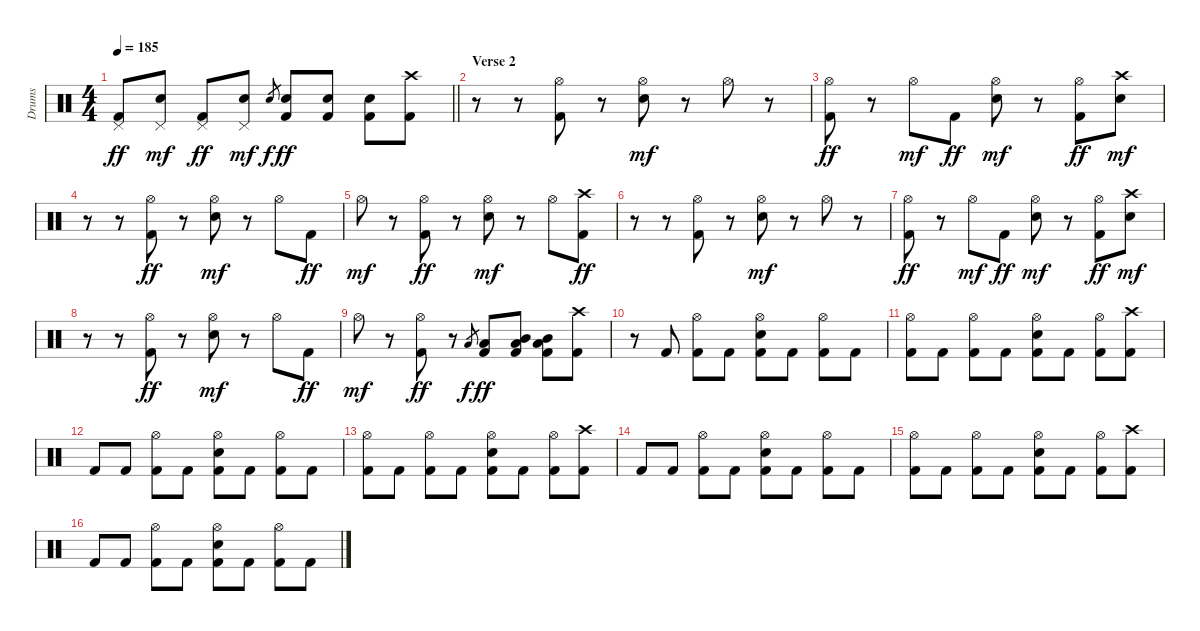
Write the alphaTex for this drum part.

\track ("Drums" "Drums") {instrument percussion}
\staff {score}
\articulation defaults
\ts (4 4)
\tempo 185
\clef neutral
\barLineRight lightlight
\ks c
("Pedal Hi-Hat (hit)" "Kick (hit) 2").8{dy ff} ("Pedal Hi-Hat (hit)" "Electric Snare (hit)").8{dy mf} ("Pedal Hi-Hat (hit)" "Kick (hit) 2").8{dy ff} ("Pedal Hi-Hat (hit)" "Electric Snare (hit)").8{dy mf} "Electric Snare (hit)".8{gr dy f} ("Electric Snare (hit)" "Kick (hit) 2").8{dy ff} ("Electric Snare (hit)" "Kick (hit) 2").8 ("Electric Snare (hit)" "Kick (hit) 2").8 ("Crash high (hit)" "Kick (hit) 2").8 |
\section ("" "Verse 2")
r.8 r.8 ("Hi-Hat (open)" "Kick (hit) 2").8 r.8 ("Hi-Hat (open)" "Electric Snare (hit)").8{dy mf} r.8 "Hi-Hat (open)".8 r.8 |
("Hi-Hat (open)" "Kick (hit) 2").8{dy ff} r.8 "Hi-Hat (open)".8{dy mf} "Kick (hit) 2".8{dy ff} ("Hi-Hat (open)" "Electric Snare (hit)").8{dy mf} r.8 ("Hi-Hat (open)" "Kick (hit) 2").8{dy ff} ("Crash high (hit)" "Electric Snare (hit)").8{dy mf} |
r.8 r.8 ("Hi-Hat (open)" "Kick (hit) 2").8{dy ff} r.8 ("Hi-Hat (open)" "Electric Snare (hit)").8{dy mf} r.8 "Hi-Hat (open)".8 "Kick (hit) 2".8{dy ff} |
"Hi-Hat (open)".8{dy mf} r.8 ("Hi-Hat (open)" "Kick (hit) 2").8{dy ff} r.8 ("Hi-Hat (open)" "Electric Snare (hit)").8{dy mf} r.8 "Hi-Hat (open)".8 ("Crash high (hit)" "Kick (hit) 2").8{dy ff} |
r.8 r.8 ("Hi-Hat (open)" "Kick (hit) 2").8 r.8 ("Hi-Hat (open)" "Electric Snare (hit)").8{dy mf} r.8 "Hi-Hat (open)".8 r.8 |
("Hi-Hat (open)" "Kick (hit) 2").8{dy ff} r.8 "Hi-Hat (open)".8{dy mf} "Kick (hit) 2".8{dy ff} ("Hi-Hat (open)" "Electric Snare (hit)").8{dy mf} r.8 ("Hi-Hat (open)" "Kick (hit) 2").8{dy ff} ("Crash high (hit)" "Electric Snare (hit)").8{dy mf} |
r.8 r.8 ("Hi-Hat (open)" "Kick (hit) 2").8{dy ff} r.8 ("Hi-Hat (open)" "Electric Snare (hit)").8{dy mf} r.8 "Hi-Hat (open)".8 "Kick (hit) 2".8{dy ff} |
"Hi-Hat (open)".8{dy mf} r.8 ("Hi-Hat (open)" "Kick (hit) 2").8{dy ff} r.8 "Low Tom (hit)".8{gr dy f} ("Low Tom (hit)" "Kick (hit) 2").8{dy ff} ("Mid Tom (hit)" "Low Tom (hit)" "Kick (hit) 2").8 ("Mid Tom (hit)" "Low Tom (hit)" "Kick (hit) 2").8 ("Crash high (hit)" "Kick (hit) 2").8 |
r.8 "Kick (hit) 2".8 ("Hi-Hat (open)" "Kick (hit) 2").8 "Kick (hit) 2".8 ("Hi-Hat (open)" "Electric Snare (hit)" "Kick (hit) 2").8 "Kick (hit) 2".8 ("Hi-Hat (open)" "Kick (hit) 2").8 "Kick (hit) 2".8 |
("Hi-Hat (open)" "Kick (hit) 2").8 "Kick (hit) 2".8 ("Hi-Hat (open)" "Kick (hit) 2").8 "Kick (hit) 2".8 ("Hi-Hat (open)" "Electric Snare (hit)" "Kick (hit) 2").8 "Kick (hit) 2".8 ("Hi-Hat (open)" "Kick (hit) 2").8 ("Crash high (hit)" "Kick (hit) 2").8 |
"Kick (hit) 2".8 "Kick (hit) 2".8 ("Hi-Hat (open)" "Kick (hit) 2").8 "Kick (hit) 2".8 ("Hi-Hat (open)" "Electric Snare (hit)" "Kick (hit) 2").8 "Kick (hit) 2".8 ("Hi-Hat (open)" "Kick (hit) 2").8 "Kick (hit) 2".8 |
("Hi-Hat (open)" "Kick (hit) 2").8 "Kick (hit) 2".8 ("Hi-Hat (open)" "Kick (hit) 2").8 "Kick (hit) 2".8 ("Hi-Hat (open)" "Electric Snare (hit)" "Kick (hit) 2").8 "Kick (hit) 2".8 ("Hi-Hat (open)" "Kick (hit) 2").8 ("Crash high (hit)" "Kick (hit) 2").8 |
"Kick (hit) 2".8 "Kick (hit) 2".8 ("Hi-Hat (open)" "Kick (hit) 2").8 "Kick (hit) 2".8 ("Hi-Hat (open)" "Electric Snare (hit)" "Kick (hit) 2").8 "Kick (hit) 2".8 ("Hi-Hat (open)" "Kick (hit) 2").8 "Kick (hit) 2".8 |
("Hi-Hat (open)" "Kick (hit) 2").8 "Kick (hit) 2".8 ("Hi-Hat (open)" "Kick (hit) 2").8 "Kick (hit) 2".8 ("Hi-Hat (open)" "Electric Snare (hit)" "Kick (hit) 2").8 "Kick (hit) 2".8 ("Hi-Hat (open)" "Kick (hit) 2").8 ("Crash high (hit)" "Kick (hit) 2").8 |
"Kick (hit) 2".8 "Kick (hit) 2".8 ("Hi-Hat (open)" "Kick (hit) 2").8 "Kick (hit) 2".8 ("Hi-Hat (open)" "Electric Snare (hit)" "Kick (hit) 2").8 "Kick (hit) 2".8 ("Hi-Hat (open)" "Kick (hit) 2").8 "Kick (hit) 2".8
